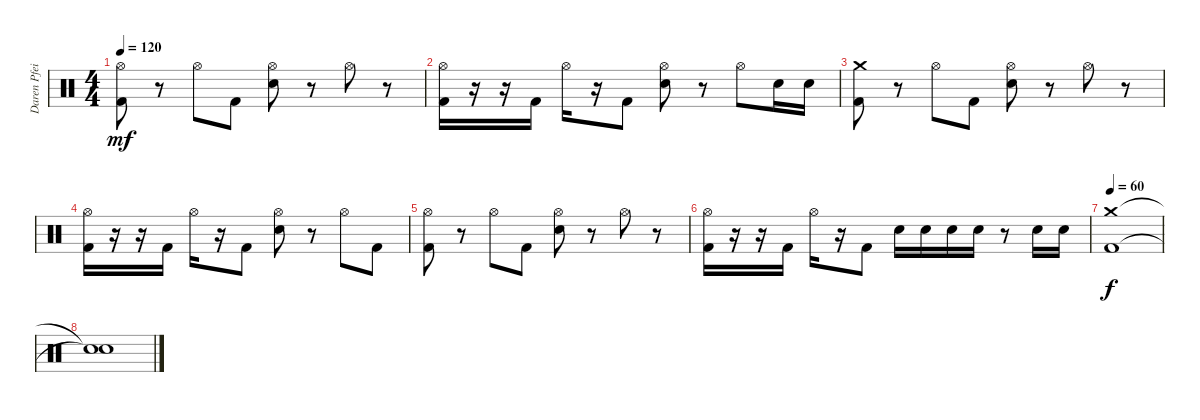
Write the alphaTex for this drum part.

\track ("Daren Pfeifer" "Daren Pfei") {instrument percussion}
\staff {score}
\articulation defaults
\ts (4 4)
\tempo 120
\clef neutral
\ks c
("Hi-Hat (open)" "Kick (hit) 2").8{dy mf} r.8 "Hi-Hat (open)".8 "Kick (hit) 2".8 ("Hi-Hat (open)" "Snare (hit) 2").8 r.8 "Hi-Hat (open)".8 r.8 |
("Hi-Hat (open)" "Kick (hit) 2").16 r.16 r.16 "Kick (hit) 2".16 "Hi-Hat (open)".16 r.16 "Kick (hit) 2".8 ("Hi-Hat (open)" "Snare (hit) 2").8 r.8 "Hi-Hat (open)".8 "Snare (hit) 2".16 "Snare (hit) 2".16 |
("Crash medium (hit)" "Kick (hit) 2").8 r.8 "Hi-Hat (open)".8 "Kick (hit) 2".8 ("Hi-Hat (open)" "Snare (hit) 2").8 r.8 "Hi-Hat (open)".8 r.8 |
("Hi-Hat (open)" "Kick (hit) 2").16 r.16 r.16 "Kick (hit) 2".16 "Hi-Hat (open)".16 r.16 "Kick (hit) 2".8 ("Hi-Hat (open)" "Snare (hit) 2").8 r.8 "Hi-Hat (open)".8 "Kick (hit) 2".8 |
("Hi-Hat (open)" "Kick (hit) 2").8 r.8 "Hi-Hat (open)".8 "Kick (hit) 2".8 ("Hi-Hat (open)" "Snare (hit) 2").8 r.8 "Hi-Hat (open)".8 r.8 |
("Hi-Hat (open)" "Kick (hit) 2").16 r.16 r.16 "Kick (hit) 2".16 "Hi-Hat (open)".16 r.16 "Kick (hit) 2".8 "Snare (hit) 2".16 "Snare (hit) 2".16 "Snare (hit) 2".16 "Snare (hit) 2".16 r.8 "Snare (hit) 2".16 "Snare (hit) 2".16 |
\tempo 60
("Crash medium (hit)" "Kick (hit) 2").1{dy f volume 0} |
("Snare (hit)"{t} "Snare (hit)"{t}).1
